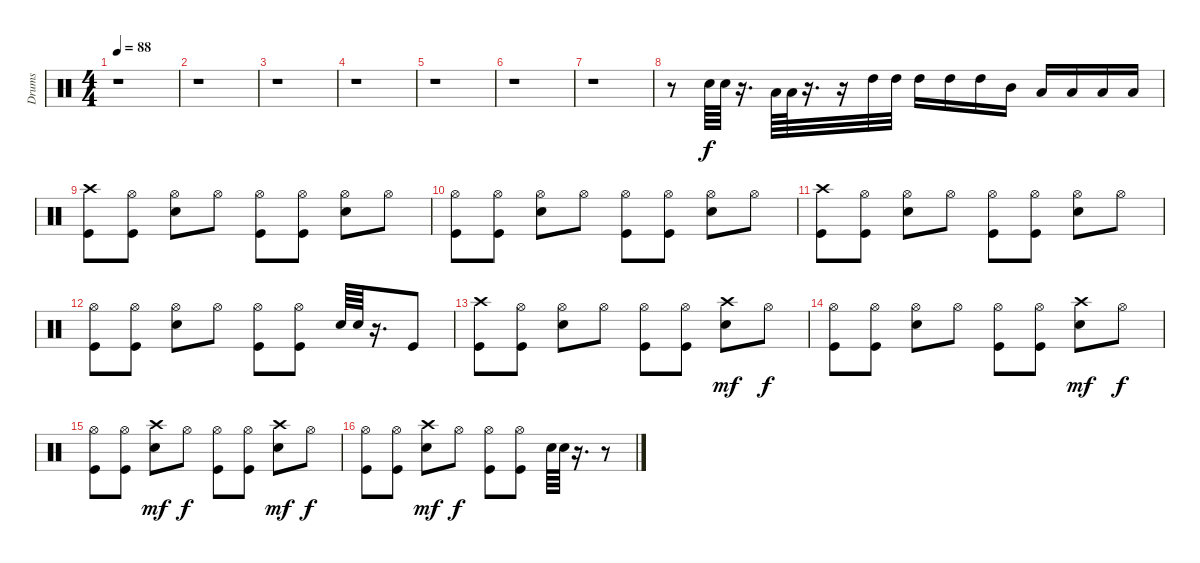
\track ("Drums" "Drums") {instrument percussion}
\staff {score}
\articulation defaults
\ts (4 4)
\tempo 88
\clef neutral
\ks c
r.1{dy f} |
r.1 |
r.1 |
r.1 |
r.1 |
r.1 |
r.1 |
r.8 "Snare (hit) 2".64 "Snare (hit) 2".64 r.16{d} "Low Tom (hit)".64 "Low Tom (hit)".64 r.16{d} r.16 "High Tom (hit)".32 "High Tom (hit)".32 "High Tom (hit)".16 "High Tom (hit)".16 "High Tom (hit)".16 "Mid Tom (hit)".16 "Low Tom (hit)".16 "Low Tom (hit)".16 "Low Tom (hit)".16 "Low Tom (hit)".16 |
("Crash high (hit)" "Kick (hit)").8 ("Hi-Hat (open)" "Kick (hit)").8 ("Hi-Hat (open)" "Snare (hit) 2").8 "Hi-Hat (open)".8 ("Hi-Hat (open)" "Kick (hit)").8 ("Hi-Hat (open)" "Kick (hit)").8 ("Hi-Hat (open)" "Snare (hit) 2").8 "Hi-Hat (open)".8 |
("Hi-Hat (open)" "Kick (hit)").8 ("Hi-Hat (open)" "Kick (hit)").8 ("Hi-Hat (open)" "Snare (hit) 2").8 "Hi-Hat (open)".8 ("Hi-Hat (open)" "Kick (hit)").8 ("Hi-Hat (open)" "Kick (hit)").8 ("Hi-Hat (open)" "Snare (hit) 2").8 "Hi-Hat (open)".8 |
("Crash high (hit)" "Kick (hit)").8 ("Hi-Hat (open)" "Kick (hit)").8 ("Hi-Hat (open)" "Snare (hit) 2").8 "Hi-Hat (open)".8 ("Hi-Hat (open)" "Kick (hit)").8 ("Hi-Hat (open)" "Kick (hit)").8 ("Hi-Hat (open)" "Snare (hit) 2").8 "Hi-Hat (open)".8 |
("Hi-Hat (open)" "Kick (hit)").8 ("Hi-Hat (open)" "Kick (hit)").8 ("Hi-Hat (open)" "Snare (hit) 2").8 "Hi-Hat (open)".8 ("Hi-Hat (open)" "Kick (hit)").8 ("Hi-Hat (open)" "Kick (hit)").8 "Snare (hit) 2".64 "Snare (hit) 2".64 r.16{d} "Kick (hit)".8 |
("Crash high (hit)" "Kick (hit)").8 ("Hi-Hat (open)" "Kick (hit)").8 ("Hi-Hat (open)" "Snare (hit) 2").8 "Hi-Hat (open)".8 ("Hi-Hat (open)" "Kick (hit)").8 ("Hi-Hat (open)" "Kick (hit)").8 ("Crash high (hit)" "Snare (hit) 2").8{dy mf} "Hi-Hat (open)".8{dy f} |
("Hi-Hat (open)" "Kick (hit)").8 ("Hi-Hat (open)" "Kick (hit)").8 ("Hi-Hat (open)" "Snare (hit) 2").8 "Hi-Hat (open)".8 ("Hi-Hat (open)" "Kick (hit)").8 ("Hi-Hat (open)" "Kick (hit)").8 ("Crash high (hit)" "Snare (hit) 2").8{dy mf} "Hi-Hat (open)".8{dy f} |
("Hi-Hat (open)" "Kick (hit)").8 ("Hi-Hat (open)" "Kick (hit)").8 ("Crash high (hit)" "Snare (hit) 2").8{dy mf} "Hi-Hat (open)".8{dy f} ("Hi-Hat (open)" "Kick (hit)").8 ("Hi-Hat (open)" "Kick (hit)").8 ("Crash high (hit)" "Snare (hit) 2").8{dy mf} "Hi-Hat (open)".8{dy f} |
("Hi-Hat (open)" "Kick (hit)").8 ("Hi-Hat (open)" "Kick (hit)").8 ("Crash high (hit)" "Snare (hit) 2").8{dy mf} "Hi-Hat (open)".8{dy f} ("Hi-Hat (open)" "Kick (hit)").8 ("Hi-Hat (open)" "Kick (hit)").8 "Snare (hit) 2".64 "Snare (hit) 2".64 r.16{d} r.8
